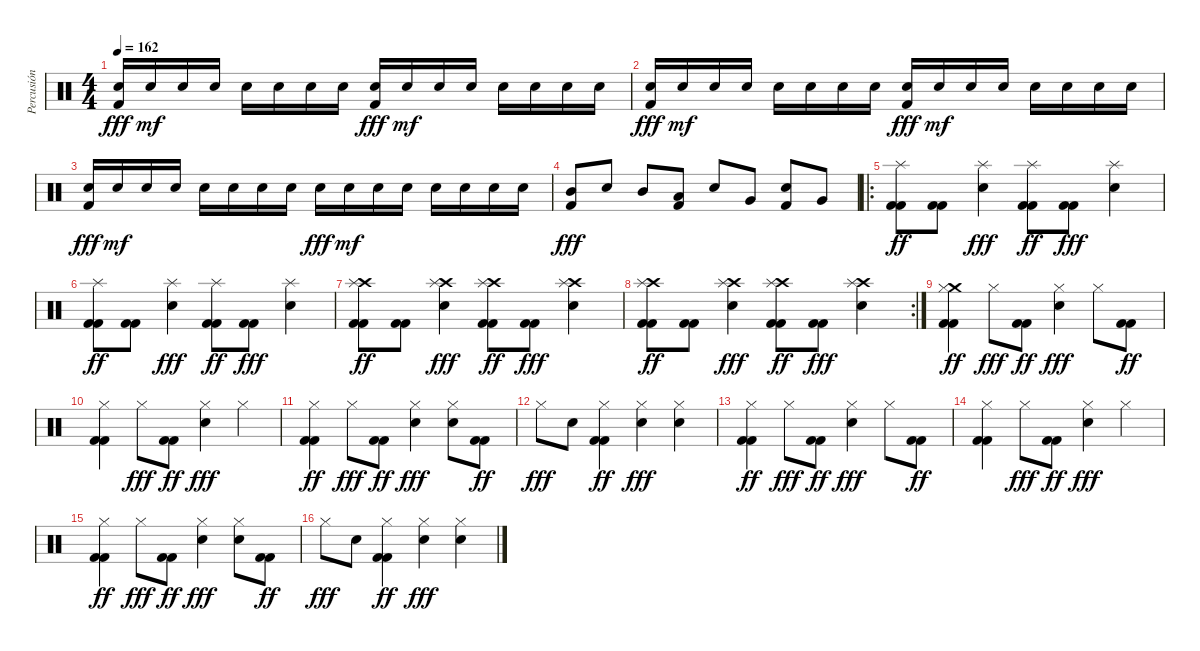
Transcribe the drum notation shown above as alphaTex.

\track ("Percusión" "Percusión") {instrument percussion}
\staff {score}
\articulation defaults
\ts (4 4)
\tempo 162
\clef neutral
\ks c
("Snare (hit) 2" "Kick (hit) 2").16{dy fff} "Snare (hit) 2".16{dy mf} "Snare (hit) 2".16 "Snare (hit) 2".16 "Snare (hit) 2".16 "Snare (hit) 2".16 "Snare (hit) 2".16 "Snare (hit) 2".16 ("Snare (hit) 2" "Kick (hit) 2").16{dy fff} "Snare (hit) 2".16{dy mf} "Snare (hit) 2".16 "Snare (hit) 2".16 "Snare (hit) 2".16 "Snare (hit) 2".16 "Snare (hit) 2".16 "Snare (hit) 2".16 |
("Snare (hit) 2" "Kick (hit) 2").16{dy fff} "Snare (hit) 2".16{dy mf} "Snare (hit) 2".16 "Snare (hit) 2".16 "Snare (hit) 2".16 "Snare (hit) 2".16 "Snare (hit) 2".16 "Snare (hit) 2".16 ("Snare (hit) 2" "Kick (hit) 2").16{dy fff} "Snare (hit) 2".16{dy mf} "Snare (hit) 2".16 "Snare (hit) 2".16 "Snare (hit) 2".16 "Snare (hit) 2".16 "Snare (hit) 2".16 "Snare (hit) 2".16 |
("Snare (hit) 2" "Kick (hit) 2").16{dy fff} "Snare (hit) 2".16{dy mf} "Snare (hit) 2".16 "Snare (hit) 2".16 "Snare (hit) 2".16 "Snare (hit) 2".16 "Snare (hit) 2".16 "Snare (hit) 2".16 "Snare (hit) 2".16{dy fff} "Snare (hit) 2".16{dy mf} "Snare (hit) 2".16 "Snare (hit) 2".16 "Snare (hit) 2".16 "Snare (hit) 2".16 "Snare (hit) 2".16 "Snare (hit) 2".16 |
("Mid Tom (hit)" "Kick (hit) 2").8{dy fff} "Snare (hit) 2".8 "Mid Tom (hit)".8 ("Low Tom (hit)" "Kick (hit) 2").8 "Snare (hit) 2".8 "Very Low Tom (hit)".8 ("Snare (hit) 2" "Kick (hit) 2").8 "Very Low Tom (hit)".8 |
\ro
("Splash (hit)" "Kick (hit) 2" "Kick (hit) 2").8{dy ff} ("Kick (hit) 2" "Kick (hit) 2").8 ("Splash (hit)" "Snare (hit) 2").4{dy fff} ("Splash (hit)" "Kick (hit) 2" "Kick (hit) 2").8{dy ff} ("Kick (hit) 2" "Kick (hit) 2").8{dy fff} ("Splash (hit)" "Snare (hit) 2").4 |
("Splash (hit)" "Kick (hit) 2" "Kick (hit) 2").8{dy ff} ("Kick (hit) 2" "Kick (hit) 2").8 ("Splash (hit)" "Snare (hit) 2").4{dy fff} ("Splash (hit)" "Kick (hit) 2" "Kick (hit) 2").8{dy ff} ("Kick (hit) 2" "Kick (hit) 2").8{dy fff} ("Splash (hit)" "Snare (hit) 2").4 |
("Crash high (hit)" "Splash (hit)" "Kick (hit) 2" "Kick (hit) 2").8{dy ff} ("Kick (hit) 2" "Kick (hit) 2").8 ("Crash high (hit)" "Splash (hit)" "Snare (hit) 2").4{dy fff} ("Crash high (hit)" "Splash (hit)" "Kick (hit) 2" "Kick (hit) 2").8{dy ff} ("Kick (hit) 2" "Kick (hit) 2").8{dy fff} ("Crash high (hit)" "Splash (hit)" "Snare (hit) 2").4 |
\rc 2
("Crash high (hit)" "Splash (hit)" "Kick (hit) 2" "Kick (hit) 2").8{dy ff} ("Kick (hit) 2" "Kick (hit) 2").8 ("Crash high (hit)" "Splash (hit)" "Snare (hit) 2").4{dy fff} ("Crash high (hit)" "Splash (hit)" "Kick (hit) 2" "Kick (hit) 2").8{dy ff} ("Kick (hit) 2" "Kick (hit) 2").8{dy fff} ("Crash high (hit)" "Splash (hit)" "Snare (hit) 2").4 |
("Crash medium (hit)" "Hi-Hat (closed)" "Kick (hit) 2" "Kick (hit) 2").4{dy ff} "Hi-Hat (closed)".8{dy fff} ("Kick (hit) 2" "Kick (hit) 2").8{dy ff} ("Hi-Hat (closed)" "Snare (hit) 2").4{dy fff} "Hi-Hat (closed)".8 ("Kick (hit) 2" "Kick (hit) 2").8{dy ff} |
("Hi-Hat (closed)" "Kick (hit) 2" "Kick (hit) 2").4 "Hi-Hat (closed)".8{dy fff} ("Kick (hit) 2" "Kick (hit) 2").8{dy ff} ("Hi-Hat (closed)" "Snare (hit) 2").4{dy fff} "Hi-Hat (closed)".4 |
("Hi-Hat (closed)" "Kick (hit) 2" "Kick (hit) 2").4{dy ff} "Hi-Hat (closed)".8{dy fff} ("Kick (hit) 2" "Kick (hit) 2").8{dy ff} ("Hi-Hat (closed)" "Snare (hit) 2").4{dy fff} ("Hi-Hat (closed)" "Snare (hit) 2").8 ("Kick (hit) 2" "Kick (hit) 2").8{dy ff} |
"Hi-Hat (closed)".8{dy fff} "Snare (hit) 2".8 ("Hi-Hat (closed)" "Kick (hit) 2" "Kick (hit) 2").4{dy ff} ("Hi-Hat (closed)" "Snare (hit) 2").4{dy fff} ("Hi-Hat (closed)" "Snare (hit) 2").4 |
("Hi-Hat (closed)" "Kick (hit) 2" "Kick (hit) 2").4{dy ff} "Hi-Hat (closed)".8{dy fff} ("Kick (hit) 2" "Kick (hit) 2").8{dy ff} ("Hi-Hat (closed)" "Snare (hit) 2").4{dy fff} "Hi-Hat (closed)".8 ("Kick (hit) 2" "Kick (hit) 2").8{dy ff} |
("Hi-Hat (closed)" "Kick (hit) 2" "Kick (hit) 2").4 "Hi-Hat (closed)".8{dy fff} ("Kick (hit) 2" "Kick (hit) 2").8{dy ff} ("Hi-Hat (closed)" "Snare (hit) 2").4{dy fff} "Hi-Hat (closed)".4 |
("Hi-Hat (closed)" "Kick (hit) 2" "Kick (hit) 2").4{dy ff} "Hi-Hat (closed)".8{dy fff} ("Kick (hit) 2" "Kick (hit) 2").8{dy ff} ("Hi-Hat (closed)" "Snare (hit) 2").4{dy fff} ("Hi-Hat (closed)" "Snare (hit) 2").8 ("Kick (hit) 2" "Kick (hit) 2").8{dy ff} |
"Hi-Hat (closed)".8{dy fff} "Snare (hit) 2".8 ("Hi-Hat (closed)" "Kick (hit) 2" "Kick (hit) 2").4{dy ff} ("Hi-Hat (closed)" "Snare (hit) 2").4{dy fff} ("Hi-Hat (closed)" "Snare (hit) 2").4
